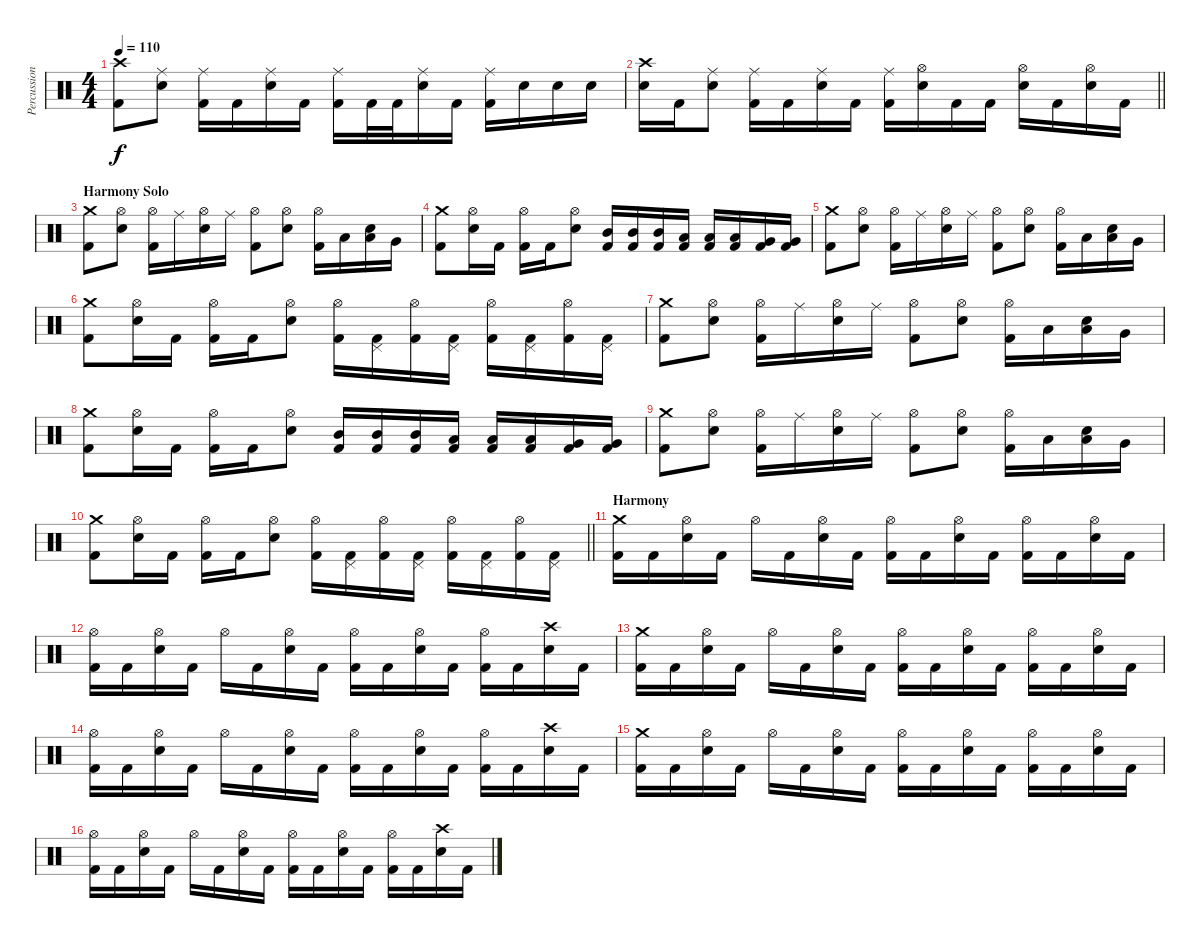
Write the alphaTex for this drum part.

\track ("Percussion" "Percussion") {instrument percussion}
\staff {score}
\articulation defaults
\ts (4 4)
\tempo 110
\clef neutral
\ks c
("Kick (hit) 2" "Crash high (hit)").8{dy f} ("Ride (middle)" "Snare (hit) 2").8 ("Ride (middle)" "Kick (hit) 2").16 "Kick (hit) 2".16 ("Ride (middle)" "Snare (hit) 2").16 "Kick (hit) 2".16 ("Ride (middle)" "Kick (hit) 2").16 "Kick (hit) 2".32 "Kick (hit) 2".32 ("Ride (middle)" "Snare (hit) 2").16 "Kick (hit) 2".16 ("Ride (middle)" "Kick (hit) 2").16 "Snare (hit) 2".16 "Snare (hit) 2".16 "Snare (hit) 2".16 |
\barLineRight lightlight
("Snare (hit) 2" "Crash high (hit)").16 "Kick (hit) 2".16 ("Ride (middle)" "Snare (hit) 2").8 ("Ride (middle)" "Kick (hit) 2").16 "Kick (hit) 2".16 ("Ride (middle)" "Snare (hit) 2").16 "Kick (hit) 2".16 ("Ride (middle)" "Kick (hit) 2").16 ("Hi-Hat (open)" "Snare (hit) 2").16 "Kick (hit) 2".16 "Kick (hit) 2".16 ("Hi-Hat (open)" "Snare (hit) 2").16 "Kick (hit) 2".16 ("Hi-Hat (open)" "Snare (hit) 2").16 "Kick (hit) 2".16 |
\section ("" "Harmony Solo")
("Kick (hit) 2" "Crash medium (hit)").8 ("Hi-Hat (open)" "Snare (hit) 2").8 ("Hi-Hat (open)" "Kick (hit) 2").16 "Ride (middle)".16 ("Hi-Hat (open)" "Snare (hit) 2").16 "Ride (middle)".16 ("Hi-Hat (open)" "Kick (hit) 2").8 ("Hi-Hat (open)" "Snare (hit) 2").8 ("Hi-Hat (open)" "Kick (hit) 2").16 "Low Tom (hit)".16 ("Low Tom (hit)" "Snare (hit) 2").16 "Very Low Tom (hit)".16 |
("Kick (hit) 2" "Crash medium (hit)").8 ("Hi-Hat (open)" "Snare (hit) 2").16 "Kick (hit) 2".16 ("Hi-Hat (open)" "Kick (hit) 2").16 "Kick (hit) 2".16 ("Hi-Hat (open)" "Snare (hit) 2").8 ("Mid Tom (hit)" "Kick (hit) 2").16 ("Mid Tom (hit)" "Kick (hit) 2").16 ("Mid Tom (hit)" "Kick (hit) 2").16 ("Low Tom (hit)" "Kick (hit) 2").16 ("Low Tom (hit)" "Kick (hit) 2").16 ("Low Tom (hit)" "Kick (hit) 2").16 ("Very Low Tom (hit)" "Kick (hit) 2").16 ("Very Low Tom (hit)" "Kick (hit) 2").16 |
("Kick (hit) 2" "Crash medium (hit)").8 ("Hi-Hat (open)" "Snare (hit) 2").8 ("Hi-Hat (open)" "Kick (hit) 2").16 "Ride (middle)".16 ("Hi-Hat (open)" "Snare (hit) 2").16 "Ride (middle)".16 ("Hi-Hat (open)" "Kick (hit) 2").8 ("Hi-Hat (open)" "Snare (hit) 2").8 ("Hi-Hat (open)" "Kick (hit) 2").16 "Low Tom (hit)".16 ("Low Tom (hit)" "Snare (hit) 2").16 "Very Low Tom (hit)".16 |
("Kick (hit) 2" "Crash medium (hit)").8 ("Hi-Hat (open)" "Snare (hit) 2").16 "Kick (hit) 2".16 ("Hi-Hat (open)" "Kick (hit) 2").16 "Kick (hit) 2".16 ("Hi-Hat (open)" "Snare (hit) 2").8 ("Hi-Hat (open)" "Kick (hit) 2").16 ("Pedal Hi-Hat (hit)" "Kick (hit) 2").16 ("Hi-Hat (open)" "Kick (hit) 2").16 ("Pedal Hi-Hat (hit)" "Kick (hit) 2").16 ("Hi-Hat (open)" "Kick (hit) 2").16 ("Pedal Hi-Hat (hit)" "Kick (hit) 2").16 ("Hi-Hat (open)" "Kick (hit) 2").16 ("Pedal Hi-Hat (hit)" "Kick (hit) 2").16 |
("Kick (hit) 2" "Crash medium (hit)").8 ("Hi-Hat (open)" "Snare (hit) 2").8 ("Hi-Hat (open)" "Kick (hit) 2").16 "Ride (middle)".16 ("Hi-Hat (open)" "Snare (hit) 2").16 "Ride (middle)".16 ("Hi-Hat (open)" "Kick (hit) 2").8 ("Hi-Hat (open)" "Snare (hit) 2").8 ("Hi-Hat (open)" "Kick (hit) 2").16 "Low Tom (hit)".16 ("Low Tom (hit)" "Snare (hit) 2").16 "Very Low Tom (hit)".16 |
("Kick (hit) 2" "Crash medium (hit)").8 ("Hi-Hat (open)" "Snare (hit) 2").16 "Kick (hit) 2".16 ("Hi-Hat (open)" "Kick (hit) 2").16 "Kick (hit) 2".16 ("Hi-Hat (open)" "Snare (hit) 2").8 ("Mid Tom (hit)" "Kick (hit) 2").16 ("Mid Tom (hit)" "Kick (hit) 2").16 ("Mid Tom (hit)" "Kick (hit) 2").16 ("Low Tom (hit)" "Kick (hit) 2").16 ("Low Tom (hit)" "Kick (hit) 2").16 ("Low Tom (hit)" "Kick (hit) 2").16 ("Very Low Tom (hit)" "Kick (hit) 2").16 ("Very Low Tom (hit)" "Kick (hit) 2").16 |
("Kick (hit) 2" "Crash medium (hit)").8 ("Hi-Hat (open)" "Snare (hit) 2").8 ("Hi-Hat (open)" "Kick (hit) 2").16 "Ride (middle)".16 ("Hi-Hat (open)" "Snare (hit) 2").16 "Ride (middle)".16 ("Hi-Hat (open)" "Kick (hit) 2").8 ("Hi-Hat (open)" "Snare (hit) 2").8 ("Hi-Hat (open)" "Kick (hit) 2").16 "Low Tom (hit)".16 ("Low Tom (hit)" "Snare (hit) 2").16 "Very Low Tom (hit)".16 |
\barLineRight lightlight
("Kick (hit) 2" "Crash medium (hit)").8 ("Hi-Hat (open)" "Snare (hit) 2").16 "Kick (hit) 2".16 ("Hi-Hat (open)" "Kick (hit) 2").16 "Kick (hit) 2".16 ("Hi-Hat (open)" "Snare (hit) 2").8 ("Hi-Hat (open)" "Kick (hit) 2").16 ("Pedal Hi-Hat (hit)" "Kick (hit) 2").16 ("Hi-Hat (open)" "Kick (hit) 2").16 ("Pedal Hi-Hat (hit)" "Kick (hit) 2").16 ("Hi-Hat (open)" "Kick (hit) 2").16 ("Pedal Hi-Hat (hit)" "Kick (hit) 2").16 ("Hi-Hat (open)" "Kick (hit) 2").16 ("Pedal Hi-Hat (hit)" "Kick (hit) 2").16 |
\section ("" "Harmony")
("Kick (hit) 2" "Crash medium (hit)").16 "Kick (hit) 2".16 ("Hi-Hat (open)" "Snare (hit) 2").16 "Kick (hit) 2".16 "Hi-Hat (open)".16 "Kick (hit) 2".16 ("Hi-Hat (open)" "Snare (hit) 2").16 "Kick (hit) 2".16 ("Hi-Hat (open)" "Kick (hit) 2").16 "Kick (hit) 2".16 ("Hi-Hat (open)" "Snare (hit) 2").16 "Kick (hit) 2".16 ("Hi-Hat (open)" "Kick (hit) 2").16 "Kick (hit) 2".16 ("Hi-Hat (open)" "Snare (hit) 2").16 "Kick (hit) 2".16 |
("Hi-Hat (open)" "Kick (hit) 2").16 "Kick (hit) 2".16 ("Hi-Hat (open)" "Snare (hit) 2").16 "Kick (hit) 2".16 "Hi-Hat (open)".16 "Kick (hit) 2".16 ("Hi-Hat (open)" "Snare (hit) 2").16 "Kick (hit) 2".16 ("Hi-Hat (open)" "Kick (hit) 2").16 "Kick (hit) 2".16 ("Hi-Hat (open)" "Snare (hit) 2").16 "Kick (hit) 2".16 ("Hi-Hat (open)" "Kick (hit) 2").16 "Kick (hit) 2".16 ("Snare (hit) 2" "Crash high (hit)").16 "Kick (hit) 2".16 |
("Kick (hit) 2" "Crash medium (hit)").16 "Kick (hit) 2".16 ("Hi-Hat (open)" "Snare (hit) 2").16 "Kick (hit) 2".16 "Hi-Hat (open)".16 "Kick (hit) 2".16 ("Hi-Hat (open)" "Snare (hit) 2").16 "Kick (hit) 2".16 ("Hi-Hat (open)" "Kick (hit) 2").16 "Kick (hit) 2".16 ("Hi-Hat (open)" "Snare (hit) 2").16 "Kick (hit) 2".16 ("Hi-Hat (open)" "Kick (hit) 2").16 "Kick (hit) 2".16 ("Hi-Hat (open)" "Snare (hit) 2").16 "Kick (hit) 2".16 |
("Hi-Hat (open)" "Kick (hit) 2").16 "Kick (hit) 2".16 ("Hi-Hat (open)" "Snare (hit) 2").16 "Kick (hit) 2".16 "Hi-Hat (open)".16 "Kick (hit) 2".16 ("Hi-Hat (open)" "Snare (hit) 2").16 "Kick (hit) 2".16 ("Hi-Hat (open)" "Kick (hit) 2").16 "Kick (hit) 2".16 ("Hi-Hat (open)" "Snare (hit) 2").16 "Kick (hit) 2".16 ("Hi-Hat (open)" "Kick (hit) 2").16 "Kick (hit) 2".16 ("Snare (hit) 2" "Crash high (hit)").16 "Kick (hit) 2".16 |
("Kick (hit) 2" "Crash medium (hit)").16 "Kick (hit) 2".16 ("Hi-Hat (open)" "Snare (hit) 2").16 "Kick (hit) 2".16 "Hi-Hat (open)".16 "Kick (hit) 2".16 ("Hi-Hat (open)" "Snare (hit) 2").16 "Kick (hit) 2".16 ("Hi-Hat (open)" "Kick (hit) 2").16 "Kick (hit) 2".16 ("Hi-Hat (open)" "Snare (hit) 2").16 "Kick (hit) 2".16 ("Hi-Hat (open)" "Kick (hit) 2").16 "Kick (hit) 2".16 ("Hi-Hat (open)" "Snare (hit) 2").16 "Kick (hit) 2".16 |
("Hi-Hat (open)" "Kick (hit) 2").16 "Kick (hit) 2".16 ("Hi-Hat (open)" "Snare (hit) 2").16 "Kick (hit) 2".16 "Hi-Hat (open)".16 "Kick (hit) 2".16 ("Hi-Hat (open)" "Snare (hit) 2").16 "Kick (hit) 2".16 ("Hi-Hat (open)" "Kick (hit) 2").16 "Kick (hit) 2".16 ("Hi-Hat (open)" "Snare (hit) 2").16 "Kick (hit) 2".16 ("Hi-Hat (open)" "Kick (hit) 2").16 "Kick (hit) 2".16 ("Snare (hit) 2" "Crash high (hit)").16 "Kick (hit) 2".16
